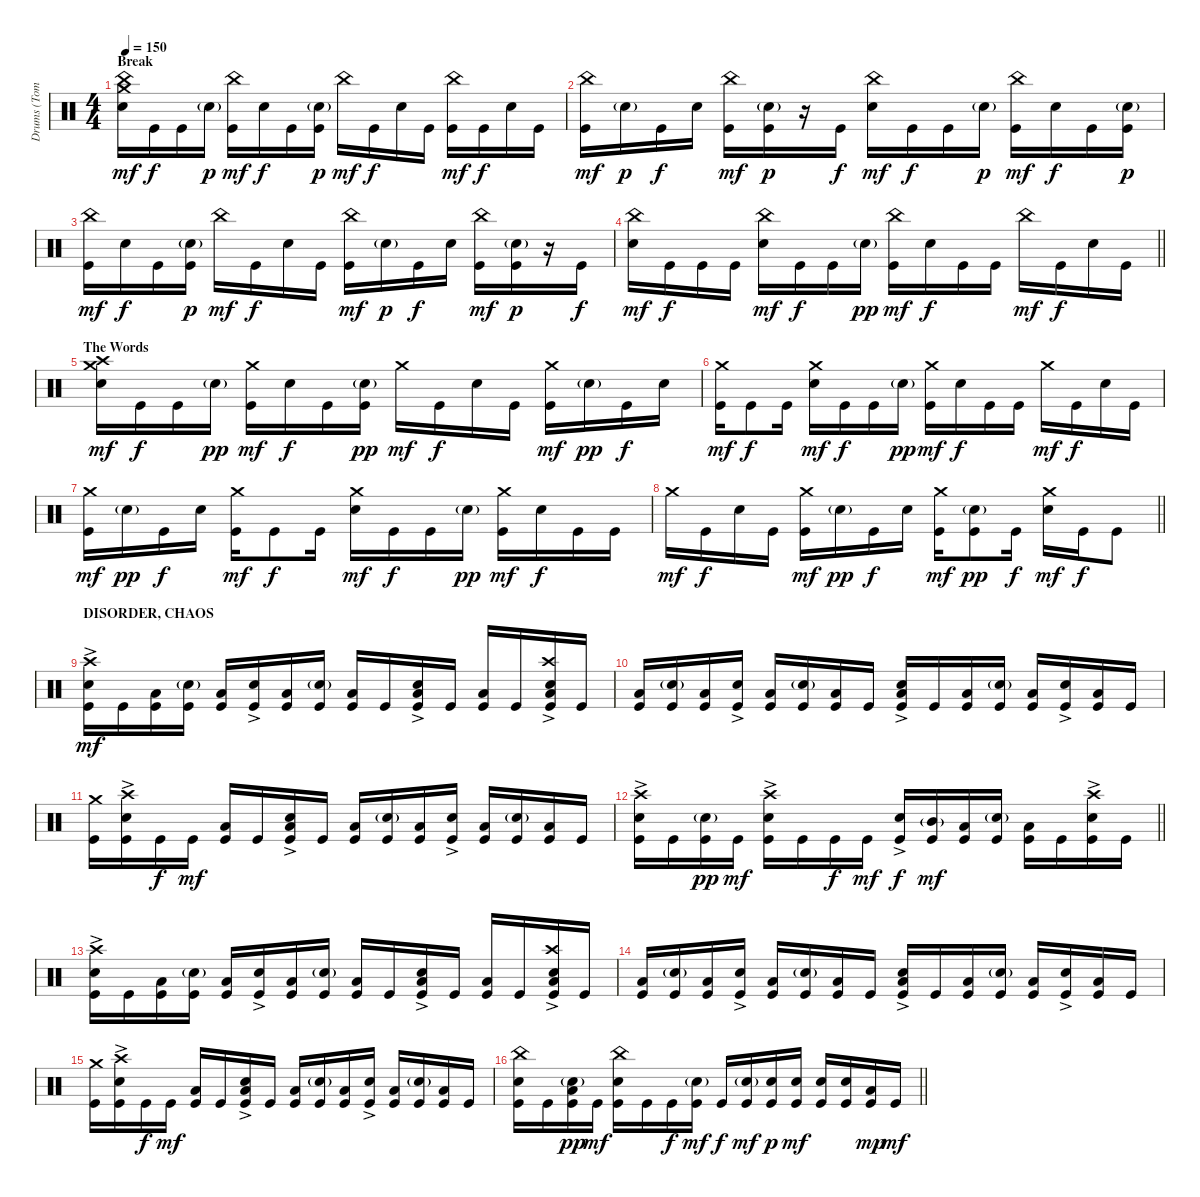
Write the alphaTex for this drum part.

\track ("Drums (Tomas Haake)" "Drums (Tom") {instrument percussion}
\staff {score}
\articulation defaults
\ts (4 4)
\section ("" "Break")
\tempo 150
\clef neutral
\ks c
("China (hit)" "Crash medium (hit)" "Electric Snare (hit)").16{dy mf} "Kick (hit)".16{dy f} "Kick (hit)".16 "Electric Snare (hit)"{g}.16{dy p} ("China (hit)" "Kick (hit)").16{dy mf} "Electric Snare (hit)".16{dy f} "Kick (hit)".16 ("Electric Snare (hit)"{g} "Kick (hit)").16{dy p} "China (hit)".16{dy mf} "Kick (hit)".16{dy f} "Electric Snare (hit)".16 "Kick (hit)".16 ("China (hit)" "Kick (hit)").16{dy mf} "Kick (hit)".16{dy f} "Electric Snare (hit)".16 "Kick (hit)".16 |
("China (hit)" "Kick (hit)").16{dy mf} "Electric Snare (hit)"{g}.16{dy p} "Kick (hit)".16{dy f} "Electric Snare (hit)".16 ("China (hit)" "Kick (hit)").16{dy mf} ("Electric Snare (hit)"{g} "Kick (hit)").16{dy p} r.16 "Kick (hit)".16{dy f} ("China (hit)" "Electric Snare (hit)").16{dy mf} "Kick (hit)".16{dy f} "Kick (hit)".16 "Electric Snare (hit)"{g}.16{dy p} ("China (hit)" "Kick (hit)").16{dy mf} "Electric Snare (hit)".16{dy f} "Kick (hit)".16 ("Electric Snare (hit)"{g} "Kick (hit)").16{dy p} |
("China (hit)" "Kick (hit)").16{dy mf} "Electric Snare (hit)".16{dy f} "Kick (hit)".16 ("Electric Snare (hit)"{g} "Kick (hit)").16{dy p} "China (hit)".16{dy mf} "Kick (hit)".16{dy f} "Electric Snare (hit)".16 "Kick (hit)".16 ("China (hit)" "Kick (hit)").16{dy mf} "Electric Snare (hit)"{g}.16{dy p} "Kick (hit)".16{dy f} "Electric Snare (hit)".16 ("China (hit)" "Kick (hit)").16{dy mf} ("Electric Snare (hit)"{g} "Kick (hit)").16{dy p} r.16 "Kick (hit)".16{dy f} |
\barLineRight lightlight
("China (hit)" "Electric Snare (hit)").16{dy mf} "Kick (hit)".16{dy f} "Kick (hit)".16 "Kick (hit)".16 ("China (hit)" "Electric Snare (hit)").16{dy mf} "Kick (hit)".16{dy f} "Kick (hit)".16 "Electric Snare (hit)"{g}.16{dy pp} ("China (hit)" "Kick (hit)").16{dy mf} "Electric Snare (hit)".16{dy f} "Kick (hit)".16 "Kick (hit)".16 "China (hit)".16{dy mf} "Kick (hit)".16{dy f} "Electric Snare (hit)".16 "Kick (hit)".16 |
\section ("" "The Words")
("Crash medium (hit)" "Crash high (hit)" "Electric Snare (hit)").16{dy mf} "Kick (hit)".16{dy f} "Kick (hit)".16 "Electric Snare (hit)"{g}.16{dy pp} ("Crash medium (hit)" "Kick (hit)").16{dy mf} "Electric Snare (hit)".16{dy f} "Kick (hit)".16 ("Electric Snare (hit)"{g} "Kick (hit)").16{dy pp} "Crash medium (hit)".16{dy mf} "Kick (hit)".16{dy f} "Electric Snare (hit)".16 "Kick (hit)".16 ("Crash medium (hit)" "Kick (hit)").16{dy mf} "Electric Snare (hit)"{g}.16{dy pp} "Kick (hit)".16{dy f} "Electric Snare (hit)".16 |
("Crash medium (hit)" "Kick (hit)").16{dy mf} "Kick (hit)".8{dy f} "Kick (hit)".16 ("Crash medium (hit)" "Electric Snare (hit)").16{dy mf} "Kick (hit)".16{dy f} "Kick (hit)".16 "Electric Snare (hit)"{g}.16{dy pp} ("Crash medium (hit)" "Kick (hit)").16{dy mf} "Electric Snare (hit)".16{dy f} "Kick (hit)".16 "Kick (hit)".16 "Crash medium (hit)".16{dy mf} "Kick (hit)".16{dy f} "Electric Snare (hit)".16 "Kick (hit)".16 |
("Crash medium (hit)" "Kick (hit)").16{dy mf} "Electric Snare (hit)"{g}.16{dy pp} "Kick (hit)".16{dy f} "Electric Snare (hit)".16 ("Crash medium (hit)" "Kick (hit)").16{dy mf} "Kick (hit)".8{dy f} "Kick (hit)".16 ("Crash medium (hit)" "Electric Snare (hit)").16{dy mf} "Kick (hit)".16{dy f} "Kick (hit)".16 "Electric Snare (hit)"{g}.16{dy pp} ("Crash medium (hit)" "Kick (hit)").16{dy mf} "Electric Snare (hit)".16{dy f} "Kick (hit)".16 "Kick (hit)".16 |
\barLineRight lightlight "Crash medium (hit)".16{dy mf} "Kick (hit)".16{dy f} "Electric Snare (hit)".16 "Kick (hit)".16
("Crash medium (hit)" "Kick (hit)").16{dy mf} "Electric Snare (hit)"{g}.16{dy pp} "Kick (hit)".16{dy f} "Electric Snare (hit)".16 ("Crash medium (hit)" "Kick (hit)").16{dy mf} ("Electric Snare (hit)"{g} "Kick (hit)").8{dy pp} "Kick (hit)".16{dy f} ("Crash medium (hit)" "Electric Snare (hit)").16{dy mf} "Kick (hit)".16{dy f} "Kick (hit)".8 |
\section ("" "DISORDER, CHAOS")
("Crash high (hit)" "Electric Snare (hit)"{ac} "Kick (hit)").16{dy mf} "Kick (hit)".16 ("Low Floor Tom (hit)" "Kick (hit)").16 ("Electric Snare (hit)"{g} "Kick (hit)").16 ("Low Floor Tom (hit)" "Kick (hit)").16 ("Electric Snare (hit)"{ac} "Kick (hit)").16 ("Low Floor Tom (hit)" "Kick (hit)").16 ("Electric Snare (hit)"{g} "Kick (hit)").16 ("Low Floor Tom (hit)" "Kick (hit)").16 "Kick (hit)".16 ("Low Floor Tom (hit)" "Electric Snare (hit)"{ac} "Kick (hit)").16 "Kick (hit)".16 ("Low Floor Tom (hit)" "Kick (hit)").16 "Kick (hit)".16 ("Crash high (hit)" "Low Floor Tom (hit)" "Electric Snare (hit)"{ac} "Kick (hit)").16 "Kick (hit)".16 |
("Low Floor Tom (hit)" "Kick (hit)").16 ("Electric Snare (hit)"{g} "Kick (hit)").16 ("Low Floor Tom (hit)" "Kick (hit)").16 ("Electric Snare (hit)"{ac} "Kick (hit)").16 ("Low Floor Tom (hit)" "Kick (hit)").16 ("Electric Snare (hit)"{g} "Kick (hit)").16 ("Low Floor Tom (hit)" "Kick (hit)").16 "Kick (hit)".16 ("Low Floor Tom (hit)" "Electric Snare (hit)"{ac} "Kick (hit)").16 "Kick (hit)".16 ("Low Floor Tom (hit)" "Kick (hit)").16 ("Electric Snare (hit)"{g} "Kick (hit)").16 ("Low Floor Tom (hit)" "Kick (hit)").16 ("Electric Snare (hit)"{ac} "Kick (hit)").16 ("Low Floor Tom (hit)" "Kick (hit)").16 "Kick (hit)".16 |
("Crash medium (hit)" "Kick (hit)").16 ("Crash high (hit)" "Electric Snare (hit)"{ac} "Kick (hit)").16 "Kick (hit)".16{dy f} "Kick (hit)".16{dy mf} ("Low Floor Tom (hit)" "Kick (hit)").16 "Kick (hit)".16 ("Low Floor Tom (hit)" "Electric Snare (hit)"{ac} "Kick (hit)").16 "Kick (hit)".16 ("Low Floor Tom (hit)" "Kick (hit)").16 ("Electric Snare (hit)"{g} "Kick (hit)").16 ("Low Floor Tom (hit)" "Kick (hit)").16 ("Electric Snare (hit)"{ac} "Kick (hit)").16 ("Low Floor Tom (hit)" "Kick (hit)").16 ("Electric Snare (hit)"{g} "Kick (hit)").16 ("Low Floor Tom (hit)" "Kick (hit)").16 "Kick (hit)".16 |
\barLineRight lightlight
("Crash high (hit)" "Electric Snare (hit)"{ac} "Kick (hit)").16 "Kick (hit)".16 ("Electric Snare (hit)"{g} "Kick (hit)").16{dy pp} "Kick (hit)".16{dy mf} ("Crash high (hit)" "Electric Snare (hit)"{ac} "Kick (hit)").16 "Kick (hit)".16 "Kick (hit)".16{dy f} "Kick (hit)".16{dy mf} ("Electric Snare (hit)"{ac} "Kick (hit)").16{dy f} ("Mid Tom (hit)"{g} "Kick (hit)").16{dy mf} ("Low Floor Tom (hit)" "Kick (hit)").16 ("Electric Snare (hit)"{g} "Kick (hit)").16 ("Low Floor Tom (hit)" "Kick (hit)").16 "Kick (hit)".16 ("Crash high (hit)" "Electric Snare (hit)"{ac} "Kick (hit)").16 "Kick (hit)".16 |
("Crash high (hit)" "Electric Snare (hit)"{ac} "Kick (hit)").16 "Kick (hit)".16 ("Low Floor Tom (hit)" "Kick (hit)").16 ("Electric Snare (hit)"{g} "Kick (hit)").16 ("Low Floor Tom (hit)" "Kick (hit)").16 ("Electric Snare (hit)"{ac} "Kick (hit)").16 ("Low Floor Tom (hit)" "Kick (hit)").16 ("Electric Snare (hit)"{g} "Kick (hit)").16 ("Low Floor Tom (hit)" "Kick (hit)").16 "Kick (hit)".16 ("Low Floor Tom (hit)" "Electric Snare (hit)"{ac} "Kick (hit)").16 "Kick (hit)".16 ("Low Floor Tom (hit)" "Kick (hit)").16 "Kick (hit)".16 ("Crash high (hit)" "Low Floor Tom (hit)" "Electric Snare (hit)"{ac} "Kick (hit)").16 "Kick (hit)".16 |
("Low Floor Tom (hit)" "Kick (hit)").16 ("Electric Snare (hit)"{g} "Kick (hit)").16 ("Low Floor Tom (hit)" "Kick (hit)").16 ("Electric Snare (hit)"{ac} "Kick (hit)").16 ("Low Floor Tom (hit)" "Kick (hit)").16 ("Electric Snare (hit)"{g} "Kick (hit)").16 ("Low Floor Tom (hit)" "Kick (hit)").16 "Kick (hit)".16 ("Low Floor Tom (hit)" "Electric Snare (hit)"{ac} "Kick (hit)").16 "Kick (hit)".16 ("Low Floor Tom (hit)" "Kick (hit)").16 ("Electric Snare (hit)"{g} "Kick (hit)").16 ("Low Floor Tom (hit)" "Kick (hit)").16 ("Electric Snare (hit)"{ac} "Kick (hit)").16 ("Low Floor Tom (hit)" "Kick (hit)").16 "Kick (hit)".16 |
("Crash medium (hit)" "Kick (hit)").16 ("Crash high (hit)" "Electric Snare (hit)"{ac} "Kick (hit)").16 "Kick (hit)".16{dy f} "Kick (hit)".16{dy mf} ("Low Floor Tom (hit)" "Kick (hit)").16 "Kick (hit)".16 ("Low Floor Tom (hit)" "Electric Snare (hit)"{ac} "Kick (hit)").16 "Kick (hit)".16 ("Low Floor Tom (hit)" "Kick (hit)").16 ("Electric Snare (hit)"{g} "Kick (hit)").16 ("Low Floor Tom (hit)" "Kick (hit)").16 ("Electric Snare (hit)"{ac} "Kick (hit)").16 ("Low Floor Tom (hit)" "Kick (hit)").16 ("Electric Snare (hit)"{g} "Kick (hit)").16 ("Low Floor Tom (hit)" "Kick (hit)").16 "Kick (hit)".16 |
\barLineRight lightlight
("China (hit)" "Electric Snare (hit)" "Kick (hit)").16 "Kick (hit)".16 ("Low Floor Tom (hit)" "Electric Snare (hit)"{g} "Kick (hit)").16{dy pp} "Kick (hit)".16{dy mf} ("China (hit)" "Electric Snare (hit)" "Kick (hit)").16 "Kick (hit)".16 "Kick (hit)".16{dy f} ("Electric Snare (hit)"{g} "Kick (hit)").16{dy mf} "Kick (hit)".16{dy f} ("Electric Snare (hit)"{g} "Kick (hit)").16{dy mf} ("Electric Snare (hit)" "Kick (hit)").16{dy p} ("Electric Snare (hit)" "Kick (hit)").16{dy mf} ("Electric Snare (hit)" "Kick (hit)").16 ("Electric Snare (hit)" "Kick (hit)").16 ("Low Tom (hit)" "Kick (hit)").16{dy mp} "Kick (hit)".16{dy mf}
